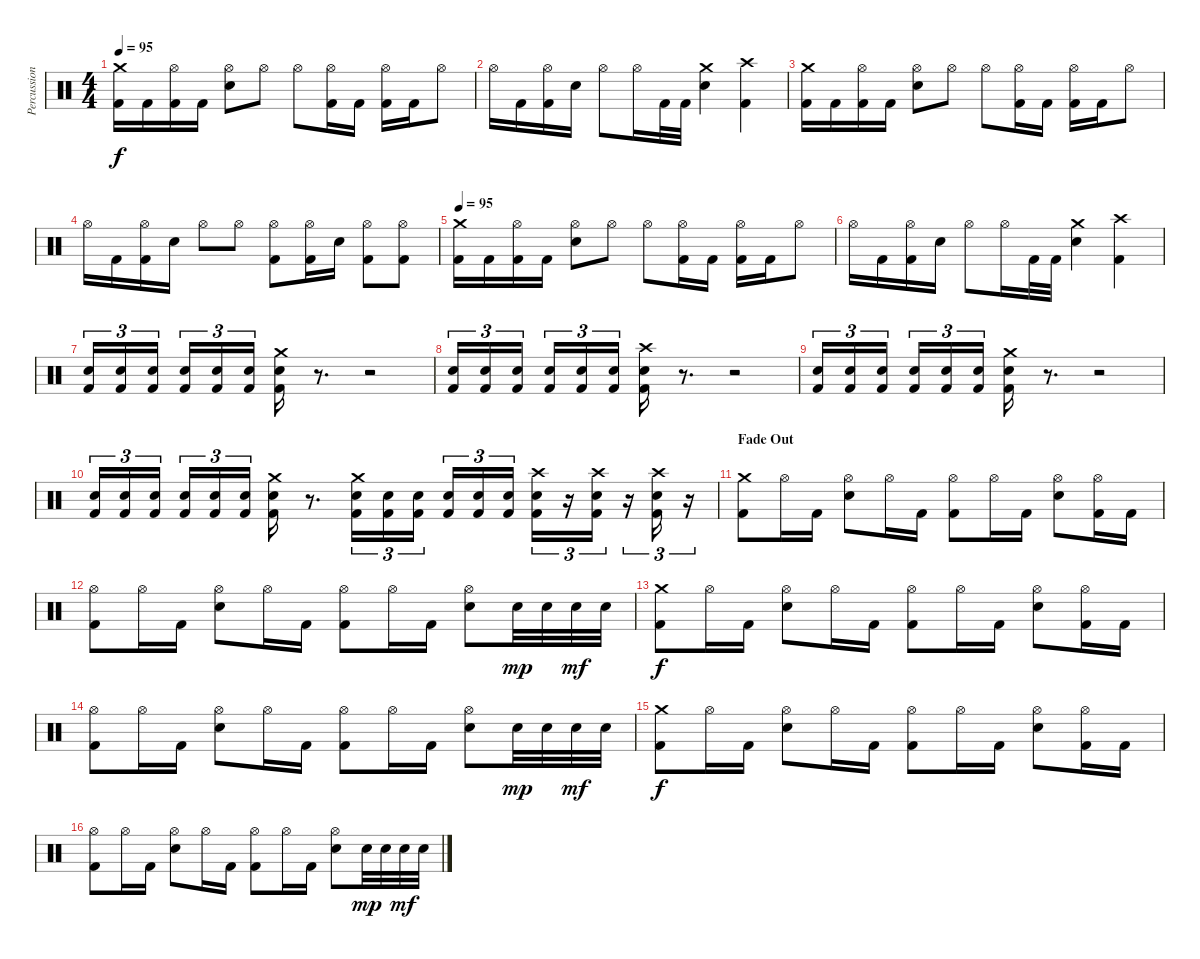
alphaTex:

\track ("Percussions" "Percussion") {instrument percussion}
\staff {score}
\articulation defaults
\ts (4 4)
\tempo 95
\clef neutral
\ks c
("Crash medium (hit)" "Kick (hit) 2").16{dy f} "Kick (hit) 2".16 ("Hi-Hat (open)" "Kick (hit) 2").16 "Kick (hit) 2".16 ("Hi-Hat (open)" "Electric Snare (hit)").8 "Hi-Hat (open)".8 "Hi-Hat (open)".8 ("Hi-Hat (open)" "Kick (hit) 2").16 "Kick (hit) 2".16 ("Hi-Hat (open)" "Kick (hit) 2").16 "Kick (hit) 2".16 "Hi-Hat (open)".8 |
"Hi-Hat (open)".16 "Kick (hit) 2".16 ("Hi-Hat (open)" "Kick (hit) 2").16 "Electric Snare (hit)".16 "Hi-Hat (open)".8 "Hi-Hat (open)".16 "Kick (hit) 2".32 "Kick (hit) 2".32 ("Crash medium (hit)" "Electric Snare (hit)").4 ("Crash high (hit)" "Kick (hit) 2").4 |
("Crash medium (hit)" "Kick (hit) 2").16 "Kick (hit) 2".16 ("Hi-Hat (open)" "Kick (hit) 2").16 "Kick (hit) 2".16 ("Hi-Hat (open)" "Electric Snare (hit)").8 "Hi-Hat (open)".8 "Hi-Hat (open)".8 ("Hi-Hat (open)" "Kick (hit) 2").16 "Kick (hit) 2".16 ("Hi-Hat (open)" "Kick (hit) 2").16 "Kick (hit) 2".16 "Hi-Hat (open)".8 |
"Hi-Hat (open)".16 "Kick (hit) 2".16 ("Hi-Hat (open)" "Kick (hit) 2").16 "Electric Snare (hit)".16 "Hi-Hat (open)".8 "Hi-Hat (open)".8 ("Hi-Hat (open)" "Kick (hit) 2").8 ("Hi-Hat (open)" "Kick (hit) 2").16 "Electric Snare (hit)".16 ("Hi-Hat (open)" "Kick (hit) 2").8 ("Hi-Hat (open)" "Kick (hit) 2").8 |
\tempo 95
("Crash medium (hit)" "Kick (hit) 2").16 "Kick (hit) 2".16 ("Hi-Hat (open)" "Kick (hit) 2").16 "Kick (hit) 2".16 ("Hi-Hat (open)" "Electric Snare (hit)").8 "Hi-Hat (open)".8 "Hi-Hat (open)".8 ("Hi-Hat (open)" "Kick (hit) 2").16 "Kick (hit) 2".16 ("Hi-Hat (open)" "Kick (hit) 2").16 "Kick (hit) 2".16 "Hi-Hat (open)".8 |
"Hi-Hat (open)".16 "Kick (hit) 2".16 ("Hi-Hat (open)" "Kick (hit) 2").16 "Electric Snare (hit)".16 "Hi-Hat (open)".8 "Hi-Hat (open)".16 "Kick (hit) 2".32 "Kick (hit) 2".32 ("Crash medium (hit)" "Electric Snare (hit)").4 ("Crash high (hit)" "Kick (hit) 2").4 |
("Electric Snare (hit)" "Kick (hit) 2").16{tu (3 2)} ("Electric Snare (hit)" "Kick (hit) 2").16{tu (3 2)} ("Electric Snare (hit)" "Kick (hit) 2").16{tu (3 2)} ("Electric Snare (hit)" "Kick (hit) 2").16{tu (3 2)} ("Electric Snare (hit)" "Kick (hit) 2").16{tu (3 2)} ("Electric Snare (hit)" "Kick (hit) 2").16{tu (3 2)} ("Crash medium (hit)" "Electric Snare (hit)" "Kick (hit) 2").16 r.8{d} r.2 |
("Electric Snare (hit)" "Kick (hit) 2").16{tu (3 2)} ("Electric Snare (hit)" "Kick (hit) 2").16{tu (3 2)} ("Electric Snare (hit)" "Kick (hit) 2").16{tu (3 2)} ("Electric Snare (hit)" "Kick (hit) 2").16{tu (3 2)} ("Electric Snare (hit)" "Kick (hit) 2").16{tu (3 2)} ("Electric Snare (hit)" "Kick (hit) 2").16{tu (3 2)} ("Crash high (hit)" "Electric Snare (hit)" "Kick (hit) 2").16 r.8{d} r.2 |
("Electric Snare (hit)" "Kick (hit) 2").16{tu (3 2)} ("Electric Snare (hit)" "Kick (hit) 2").16{tu (3 2)} ("Electric Snare (hit)" "Kick (hit) 2").16{tu (3 2)} ("Electric Snare (hit)" "Kick (hit) 2").16{tu (3 2)} ("Electric Snare (hit)" "Kick (hit) 2").16{tu (3 2)} ("Electric Snare (hit)" "Kick (hit) 2").16{tu (3 2)} ("Crash medium (hit)" "Electric Snare (hit)" "Kick (hit) 2").16 r.8{d} r.2 |
("Electric Snare (hit)" "Kick (hit) 2").16{tu (3 2)} ("Electric Snare (hit)" "Kick (hit) 2").16{tu (3 2)} ("Electric Snare (hit)" "Kick (hit) 2").16{tu (3 2)} ("Electric Snare (hit)" "Kick (hit) 2").16{tu (3 2)} ("Electric Snare (hit)" "Kick (hit) 2").16{tu (3 2)} ("Electric Snare (hit)" "Kick (hit) 2").16{tu (3 2)} ("Crash medium (hit)" "Electric Snare (hit)" "Kick (hit) 2").16 r.8{d} ("Crash medium (hit)" "Electric Snare (hit)" "Kick (hit) 2").16{tu (3 2)} ("Electric Snare (hit)" "Kick (hit) 2").16{tu (3 2)} ("Electric Snare (hit)" "Kick (hit) 2").16{tu (3 2)} ("Electric Snare (hit)" "Kick (hit) 2").16{tu (3 2)} ("Electric Snare (hit)" "Kick (hit) 2").16{tu (3 2)} ("Electric Snare (hit)" "Kick (hit) 2").16{tu (3 2)} ("Crash high (hit)" "Electric Snare (hit)" "Kick (hit) 2").16{tu (3 2)} r.16{tu (3 2)} ("Crash high (hit)" "Electric Snare (hit)" "Kick (hit) 2").16{tu (3 2)} r.16{tu (3 2)} ("Crash high (hit)" "Electric Snare (hit)" "Kick (hit) 2").16{tu (3 2)} r.16{tu (3 2)} |
\section ("" "Fade Out")
("Crash medium (hit)" "Kick (hit) 2").8 "Hi-Hat (open)".16 "Kick (hit) 2".16 ("Hi-Hat (open)" "Electric Snare (hit)").8 "Hi-Hat (open)".16 "Kick (hit) 2".16 ("Hi-Hat (open)" "Kick (hit) 2").8 "Hi-Hat (open)".16 "Kick (hit) 2".16 ("Hi-Hat (open)" "Electric Snare (hit)").8 ("Hi-Hat (open)" "Kick (hit) 2").16 "Kick (hit) 2".16 |
("Hi-Hat (open)" "Kick (hit) 2").8 "Hi-Hat (open)".16 "Kick (hit) 2".16 ("Hi-Hat (open)" "Electric Snare (hit)").8 "Hi-Hat (open)".16 "Kick (hit) 2".16 ("Hi-Hat (open)" "Kick (hit) 2").8 "Hi-Hat (open)".16 "Kick (hit) 2".16 ("Hi-Hat (open)" "Electric Snare (hit)").8 "Electric Snare (hit)".32{dy mp} "Electric Snare (hit)".32 "Electric Snare (hit)".32{dy mf} "Electric Snare (hit)".32 |
("Crash medium (hit)" "Kick (hit) 2").8{dy f} "Hi-Hat (open)".16 "Kick (hit) 2".16 ("Hi-Hat (open)" "Electric Snare (hit)").8 "Hi-Hat (open)".16 "Kick (hit) 2".16 ("Hi-Hat (open)" "Kick (hit) 2").8 "Hi-Hat (open)".16 "Kick (hit) 2".16 ("Hi-Hat (open)" "Electric Snare (hit)").8 ("Hi-Hat (open)" "Kick (hit) 2").16 "Kick (hit) 2".16 |
("Hi-Hat (open)" "Kick (hit) 2").8 "Hi-Hat (open)".16 "Kick (hit) 2".16 ("Hi-Hat (open)" "Electric Snare (hit)").8 "Hi-Hat (open)".16 "Kick (hit) 2".16 ("Hi-Hat (open)" "Kick (hit) 2").8 "Hi-Hat (open)".16 "Kick (hit) 2".16 ("Hi-Hat (open)" "Electric Snare (hit)").8 "Electric Snare (hit)".32{dy mp} "Electric Snare (hit)".32 "Electric Snare (hit)".32{dy mf} "Electric Snare (hit)".32 |
("Crash medium (hit)" "Kick (hit) 2").8{dy f} "Hi-Hat (open)".16 "Kick (hit) 2".16 ("Hi-Hat (open)" "Electric Snare (hit)").8 "Hi-Hat (open)".16 "Kick (hit) 2".16 ("Hi-Hat (open)" "Kick (hit) 2").8 "Hi-Hat (open)".16 "Kick (hit) 2".16 ("Hi-Hat (open)" "Electric Snare (hit)").8 ("Hi-Hat (open)" "Kick (hit) 2").16 "Kick (hit) 2".16 |
("Hi-Hat (open)" "Kick (hit) 2").8{volume 12} "Hi-Hat (open)".16 "Kick (hit) 2".16 ("Hi-Hat (open)" "Electric Snare (hit)").8 "Hi-Hat (open)".16 "Kick (hit) 2".16 ("Hi-Hat (open)" "Kick (hit) 2").8 "Hi-Hat (open)".16 "Kick (hit) 2".16 ("Hi-Hat (open)" "Electric Snare (hit)").8 "Electric Snare (hit)".32{dy mp} "Electric Snare (hit)".32 "Electric Snare (hit)".32{dy mf} "Electric Snare (hit)".32
